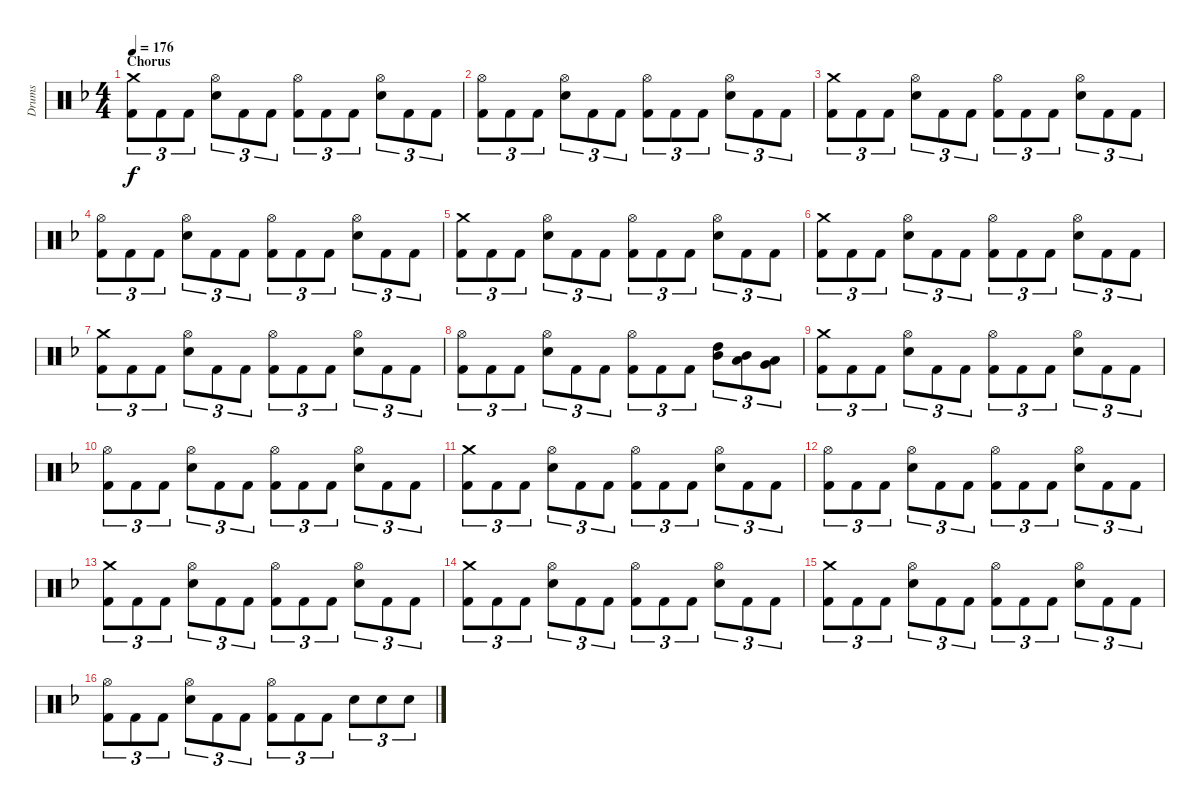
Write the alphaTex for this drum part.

\track ("Drums" "Drums") {instrument percussion}
\staff {score}
\articulation defaults
\ts (4 4)
\section ("" "Chorus")
\tempo 176
\clef neutral
\ks f
("Crash medium (hit)" "Kick (hit) 2").8{tu (3 2) dy f} "Kick (hit) 2".8{tu (3 2)} "Kick (hit) 2".8{tu (3 2)} ("Hi-Hat (open)" "Snare (hit) 2").8{tu (3 2)} "Kick (hit) 2".8{tu (3 2)} "Kick (hit) 2".8{tu (3 2)} ("Hi-Hat (open)" "Kick (hit) 2").8{tu (3 2)} "Kick (hit) 2".8{tu (3 2)} "Kick (hit) 2".8{tu (3 2)} ("Hi-Hat (open)" "Snare (hit) 2").8{tu (3 2)} "Kick (hit) 2".8{tu (3 2)} "Kick (hit) 2".8{tu (3 2)} |
("Hi-Hat (open)" "Kick (hit) 2").8{tu (3 2)} "Kick (hit) 2".8{tu (3 2)} "Kick (hit) 2".8{tu (3 2)} ("Hi-Hat (open)" "Snare (hit) 2").8{tu (3 2)} "Kick (hit) 2".8{tu (3 2)} "Kick (hit) 2".8{tu (3 2)} ("Hi-Hat (open)" "Kick (hit) 2").8{tu (3 2)} "Kick (hit) 2".8{tu (3 2)} "Kick (hit) 2".8{tu (3 2)} ("Hi-Hat (open)" "Snare (hit) 2").8{tu (3 2)} "Kick (hit) 2".8{tu (3 2)} "Kick (hit) 2".8{tu (3 2)} |
("Crash medium (hit)" "Kick (hit) 2").8{tu (3 2)} "Kick (hit) 2".8{tu (3 2)} "Kick (hit) 2".8{tu (3 2)} ("Hi-Hat (open)" "Snare (hit) 2").8{tu (3 2)} "Kick (hit) 2".8{tu (3 2)} "Kick (hit) 2".8{tu (3 2)} ("Hi-Hat (open)" "Kick (hit) 2").8{tu (3 2)} "Kick (hit) 2".8{tu (3 2)} "Kick (hit) 2".8{tu (3 2)} ("Hi-Hat (open)" "Snare (hit) 2").8{tu (3 2)} "Kick (hit) 2".8{tu (3 2)} "Kick (hit) 2".8{tu (3 2)} |
("Hi-Hat (open)" "Kick (hit) 2").8{tu (3 2)} "Kick (hit) 2".8{tu (3 2)} "Kick (hit) 2".8{tu (3 2)} ("Hi-Hat (open)" "Snare (hit) 2").8{tu (3 2)} "Kick (hit) 2".8{tu (3 2)} "Kick (hit) 2".8{tu (3 2)} ("Hi-Hat (open)" "Kick (hit) 2").8{tu (3 2)} "Kick (hit) 2".8{tu (3 2)} "Kick (hit) 2".8{tu (3 2)} ("Hi-Hat (open)" "Snare (hit) 2").8{tu (3 2)} "Kick (hit) 2".8{tu (3 2)} "Kick (hit) 2".8{tu (3 2)} |
("Crash medium (hit)" "Kick (hit) 2").8{tu (3 2)} "Kick (hit) 2".8{tu (3 2)} "Kick (hit) 2".8{tu (3 2)} ("Hi-Hat (open)" "Snare (hit) 2").8{tu (3 2)} "Kick (hit) 2".8{tu (3 2)} "Kick (hit) 2".8{tu (3 2)} ("Hi-Hat (open)" "Kick (hit) 2").8{tu (3 2)} "Kick (hit) 2".8{tu (3 2)} "Kick (hit) 2".8{tu (3 2)} ("Hi-Hat (open)" "Snare (hit) 2").8{tu (3 2)} "Kick (hit) 2".8{tu (3 2)} "Kick (hit) 2".8{tu (3 2)} |
("Crash medium (hit)" "Kick (hit) 2").8{tu (3 2)} "Kick (hit) 2".8{tu (3 2)} "Kick (hit) 2".8{tu (3 2)} ("Hi-Hat (open)" "Snare (hit) 2").8{tu (3 2)} "Kick (hit) 2".8{tu (3 2)} "Kick (hit) 2".8{tu (3 2)} ("Hi-Hat (open)" "Kick (hit) 2").8{tu (3 2)} "Kick (hit) 2".8{tu (3 2)} "Kick (hit) 2".8{tu (3 2)} ("Hi-Hat (open)" "Snare (hit) 2").8{tu (3 2)} "Kick (hit) 2".8{tu (3 2)} "Kick (hit) 2".8{tu (3 2)} |
("Crash medium (hit)" "Kick (hit) 2").8{tu (3 2)} "Kick (hit) 2".8{tu (3 2)} "Kick (hit) 2".8{tu (3 2)} ("Hi-Hat (open)" "Snare (hit) 2").8{tu (3 2)} "Kick (hit) 2".8{tu (3 2)} "Kick (hit) 2".8{tu (3 2)} ("Hi-Hat (open)" "Kick (hit) 2").8{tu (3 2)} "Kick (hit) 2".8{tu (3 2)} "Kick (hit) 2".8{tu (3 2)} ("Hi-Hat (open)" "Snare (hit) 2").8{tu (3 2)} "Kick (hit) 2".8{tu (3 2)} "Kick (hit) 2".8{tu (3 2)} |
("Hi-Hat (open)" "Kick (hit) 2").8{tu (3 2)} "Kick (hit) 2".8{tu (3 2)} "Kick (hit) 2".8{tu (3 2)} ("Hi-Hat (open)" "Snare (hit) 2").8{tu (3 2)} "Kick (hit) 2".8{tu (3 2)} "Kick (hit) 2".8{tu (3 2)} ("Hi-Hat (open)" "Kick (hit) 2").8{tu (3 2)} "Kick (hit) 2".8{tu (3 2)} "Kick (hit) 2".8{tu (3 2)} ("High Tom (hit)" "Mid Tom (hit)").8{tu (3 2)} ("Mid Tom (hit)" "Low Tom (hit)").8{tu (3 2)} ("Low Tom (hit)" "Very Low Tom (hit)").8{tu (3 2)} |
("Crash medium (hit)" "Kick (hit) 2").8{tu (3 2)} "Kick (hit) 2".8{tu (3 2)} "Kick (hit) 2".8{tu (3 2)} ("Hi-Hat (open)" "Snare (hit) 2").8{tu (3 2)} "Kick (hit) 2".8{tu (3 2)} "Kick (hit) 2".8{tu (3 2)} ("Hi-Hat (open)" "Kick (hit) 2").8{tu (3 2)} "Kick (hit) 2".8{tu (3 2)} "Kick (hit) 2".8{tu (3 2)} ("Hi-Hat (open)" "Snare (hit) 2").8{tu (3 2)} "Kick (hit) 2".8{tu (3 2)} "Kick (hit) 2".8{tu (3 2)} |
("Hi-Hat (open)" "Kick (hit) 2").8{tu (3 2)} "Kick (hit) 2".8{tu (3 2)} "Kick (hit) 2".8{tu (3 2)} ("Hi-Hat (open)" "Snare (hit) 2").8{tu (3 2)} "Kick (hit) 2".8{tu (3 2)} "Kick (hit) 2".8{tu (3 2)} ("Hi-Hat (open)" "Kick (hit) 2").8{tu (3 2)} "Kick (hit) 2".8{tu (3 2)} "Kick (hit) 2".8{tu (3 2)} ("Hi-Hat (open)" "Snare (hit) 2").8{tu (3 2)} "Kick (hit) 2".8{tu (3 2)} "Kick (hit) 2".8{tu (3 2)} |
("Crash medium (hit)" "Kick (hit) 2").8{tu (3 2)} "Kick (hit) 2".8{tu (3 2)} "Kick (hit) 2".8{tu (3 2)} ("Hi-Hat (open)" "Snare (hit) 2").8{tu (3 2)} "Kick (hit) 2".8{tu (3 2)} "Kick (hit) 2".8{tu (3 2)} ("Hi-Hat (open)" "Kick (hit) 2").8{tu (3 2)} "Kick (hit) 2".8{tu (3 2)} "Kick (hit) 2".8{tu (3 2)} ("Hi-Hat (open)" "Snare (hit) 2").8{tu (3 2)} "Kick (hit) 2".8{tu (3 2)} "Kick (hit) 2".8{tu (3 2)} |
("Hi-Hat (open)" "Kick (hit) 2").8{tu (3 2)} "Kick (hit) 2".8{tu (3 2)} "Kick (hit) 2".8{tu (3 2)} ("Hi-Hat (open)" "Snare (hit) 2").8{tu (3 2)} "Kick (hit) 2".8{tu (3 2)} "Kick (hit) 2".8{tu (3 2)} ("Hi-Hat (open)" "Kick (hit) 2").8{tu (3 2)} "Kick (hit) 2".8{tu (3 2)} "Kick (hit) 2".8{tu (3 2)} ("Hi-Hat (open)" "Snare (hit) 2").8{tu (3 2)} "Kick (hit) 2".8{tu (3 2)} "Kick (hit) 2".8{tu (3 2)} |
("Crash medium (hit)" "Kick (hit) 2").8{tu (3 2)} "Kick (hit) 2".8{tu (3 2)} "Kick (hit) 2".8{tu (3 2)} ("Hi-Hat (open)" "Snare (hit) 2").8{tu (3 2)} "Kick (hit) 2".8{tu (3 2)} "Kick (hit) 2".8{tu (3 2)} ("Hi-Hat (open)" "Kick (hit) 2").8{tu (3 2)} "Kick (hit) 2".8{tu (3 2)} "Kick (hit) 2".8{tu (3 2)} ("Hi-Hat (open)" "Snare (hit) 2").8{tu (3 2)} "Kick (hit) 2".8{tu (3 2)} "Kick (hit) 2".8{tu (3 2)} |
("Crash medium (hit)" "Kick (hit) 2").8{tu (3 2)} "Kick (hit) 2".8{tu (3 2)} "Kick (hit) 2".8{tu (3 2)} ("Hi-Hat (open)" "Snare (hit) 2").8{tu (3 2)} "Kick (hit) 2".8{tu (3 2)} "Kick (hit) 2".8{tu (3 2)} ("Hi-Hat (open)" "Kick (hit) 2").8{tu (3 2)} "Kick (hit) 2".8{tu (3 2)} "Kick (hit) 2".8{tu (3 2)} ("Hi-Hat (open)" "Snare (hit) 2").8{tu (3 2)} "Kick (hit) 2".8{tu (3 2)} "Kick (hit) 2".8{tu (3 2)} |
("Crash medium (hit)" "Kick (hit) 2").8{tu (3 2)} "Kick (hit) 2".8{tu (3 2)} "Kick (hit) 2".8{tu (3 2)} ("Hi-Hat (open)" "Snare (hit) 2").8{tu (3 2)} "Kick (hit) 2".8{tu (3 2)} "Kick (hit) 2".8{tu (3 2)} ("Hi-Hat (open)" "Kick (hit) 2").8{tu (3 2)} "Kick (hit) 2".8{tu (3 2)} "Kick (hit) 2".8{tu (3 2)} ("Hi-Hat (open)" "Snare (hit) 2").8{tu (3 2)} "Kick (hit) 2".8{tu (3 2)} "Kick (hit) 2".8{tu (3 2)} |
("Hi-Hat (open)" "Kick (hit) 2").8{tu (3 2)} "Kick (hit) 2".8{tu (3 2)} "Kick (hit) 2".8{tu (3 2)} ("Hi-Hat (open)" "Snare (hit) 2").8{tu (3 2)} "Kick (hit) 2".8{tu (3 2)} "Kick (hit) 2".8{tu (3 2)} ("Hi-Hat (open)" "Kick (hit) 2").8{tu (3 2)} "Kick (hit) 2".8{tu (3 2)} "Kick (hit) 2".8{tu (3 2)} "Snare (hit) 2".8{tu (3 2)} "Snare (hit) 2".8{tu (3 2)} "Snare (hit) 2".8{tu (3 2)}
